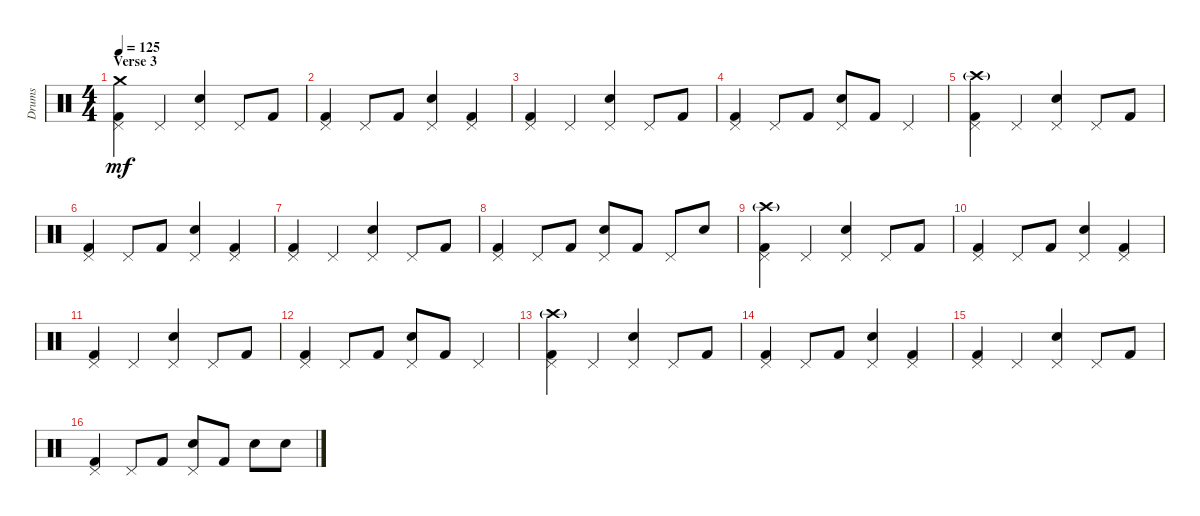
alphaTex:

\track ("Drums" "Drums") {instrument percussion}
\staff {score}
\articulation defaults
\ts (4 4)
\section ("" "Verse 3")
\tempo 125
\clef neutral
\ks c
("Crash medium (hit)" "Pedal Hi-Hat (hit)" "Kick (hit) 2").4{dy mf} "Pedal Hi-Hat (hit)".4 ("Pedal Hi-Hat (hit)" "Snare (hit) 2").4 "Pedal Hi-Hat (hit)".8 "Kick (hit) 2".8 |
("Pedal Hi-Hat (hit)" "Kick (hit) 2").4 "Pedal Hi-Hat (hit)".8 "Kick (hit) 2".8 ("Pedal Hi-Hat (hit)" "Snare (hit) 2").4 ("Pedal Hi-Hat (hit)" "Kick (hit) 2").4 |
("Pedal Hi-Hat (hit)" "Kick (hit) 2").4 "Pedal Hi-Hat (hit)".4 ("Pedal Hi-Hat (hit)" "Snare (hit) 2").4 "Pedal Hi-Hat (hit)".8 "Kick (hit) 2".8 |
("Pedal Hi-Hat (hit)" "Kick (hit) 2").4 "Pedal Hi-Hat (hit)".8 "Kick (hit) 2".8 ("Pedal Hi-Hat (hit)" "Snare (hit) 2").8 "Kick (hit) 2".8 "Pedal Hi-Hat (hit)".4 |
("Crash high (hit)"{g} "Pedal Hi-Hat (hit)" "Kick (hit) 2").4 "Pedal Hi-Hat (hit)".4 ("Pedal Hi-Hat (hit)" "Snare (hit) 2").4 "Pedal Hi-Hat (hit)".8 "Kick (hit) 2".8 |
("Pedal Hi-Hat (hit)" "Kick (hit) 2").4 "Pedal Hi-Hat (hit)".8 "Kick (hit) 2".8 ("Pedal Hi-Hat (hit)" "Snare (hit) 2").4 ("Pedal Hi-Hat (hit)" "Kick (hit) 2").4 |
("Pedal Hi-Hat (hit)" "Kick (hit) 2").4 "Pedal Hi-Hat (hit)".4 ("Pedal Hi-Hat (hit)" "Snare (hit) 2").4 "Pedal Hi-Hat (hit)".8 "Kick (hit) 2".8 |
("Pedal Hi-Hat (hit)" "Kick (hit) 2").4 "Pedal Hi-Hat (hit)".8 "Kick (hit) 2".8 ("Pedal Hi-Hat (hit)" "Snare (hit) 2").8 "Kick (hit) 2".8 "Pedal Hi-Hat (hit)".8 "Snare (hit) 2".8 |
("Crash high (hit)"{g} "Pedal Hi-Hat (hit)" "Kick (hit) 2").4 "Pedal Hi-Hat (hit)".4 ("Pedal Hi-Hat (hit)" "Snare (hit) 2").4 "Pedal Hi-Hat (hit)".8 "Kick (hit) 2".8 |
("Pedal Hi-Hat (hit)" "Kick (hit) 2").4 "Pedal Hi-Hat (hit)".8 "Kick (hit) 2".8 ("Pedal Hi-Hat (hit)" "Snare (hit) 2").4 ("Pedal Hi-Hat (hit)" "Kick (hit) 2").4 |
("Pedal Hi-Hat (hit)" "Kick (hit) 2").4 "Pedal Hi-Hat (hit)".4 ("Pedal Hi-Hat (hit)" "Snare (hit) 2").4 "Pedal Hi-Hat (hit)".8 "Kick (hit) 2".8 |
("Pedal Hi-Hat (hit)" "Kick (hit) 2").4 "Pedal Hi-Hat (hit)".8 "Kick (hit) 2".8 ("Pedal Hi-Hat (hit)" "Snare (hit) 2").8 "Kick (hit) 2".8 "Pedal Hi-Hat (hit)".4 |
("Crash high (hit)"{g} "Pedal Hi-Hat (hit)" "Kick (hit) 2").4 "Pedal Hi-Hat (hit)".4 ("Pedal Hi-Hat (hit)" "Snare (hit) 2").4 "Pedal Hi-Hat (hit)".8 "Kick (hit) 2".8 |
("Pedal Hi-Hat (hit)" "Kick (hit) 2").4 "Pedal Hi-Hat (hit)".8 "Kick (hit) 2".8 ("Pedal Hi-Hat (hit)" "Snare (hit) 2").4 ("Pedal Hi-Hat (hit)" "Kick (hit) 2").4 |
("Pedal Hi-Hat (hit)" "Kick (hit) 2").4 "Pedal Hi-Hat (hit)".4 ("Pedal Hi-Hat (hit)" "Snare (hit) 2").4 "Pedal Hi-Hat (hit)".8 "Kick (hit) 2".8 |
("Pedal Hi-Hat (hit)" "Kick (hit) 2").4 "Pedal Hi-Hat (hit)".8 "Kick (hit) 2".8 ("Pedal Hi-Hat (hit)" "Snare (hit) 2").8 "Kick (hit) 2".8 "Snare (hit) 2".8 "Snare (hit) 2".8
